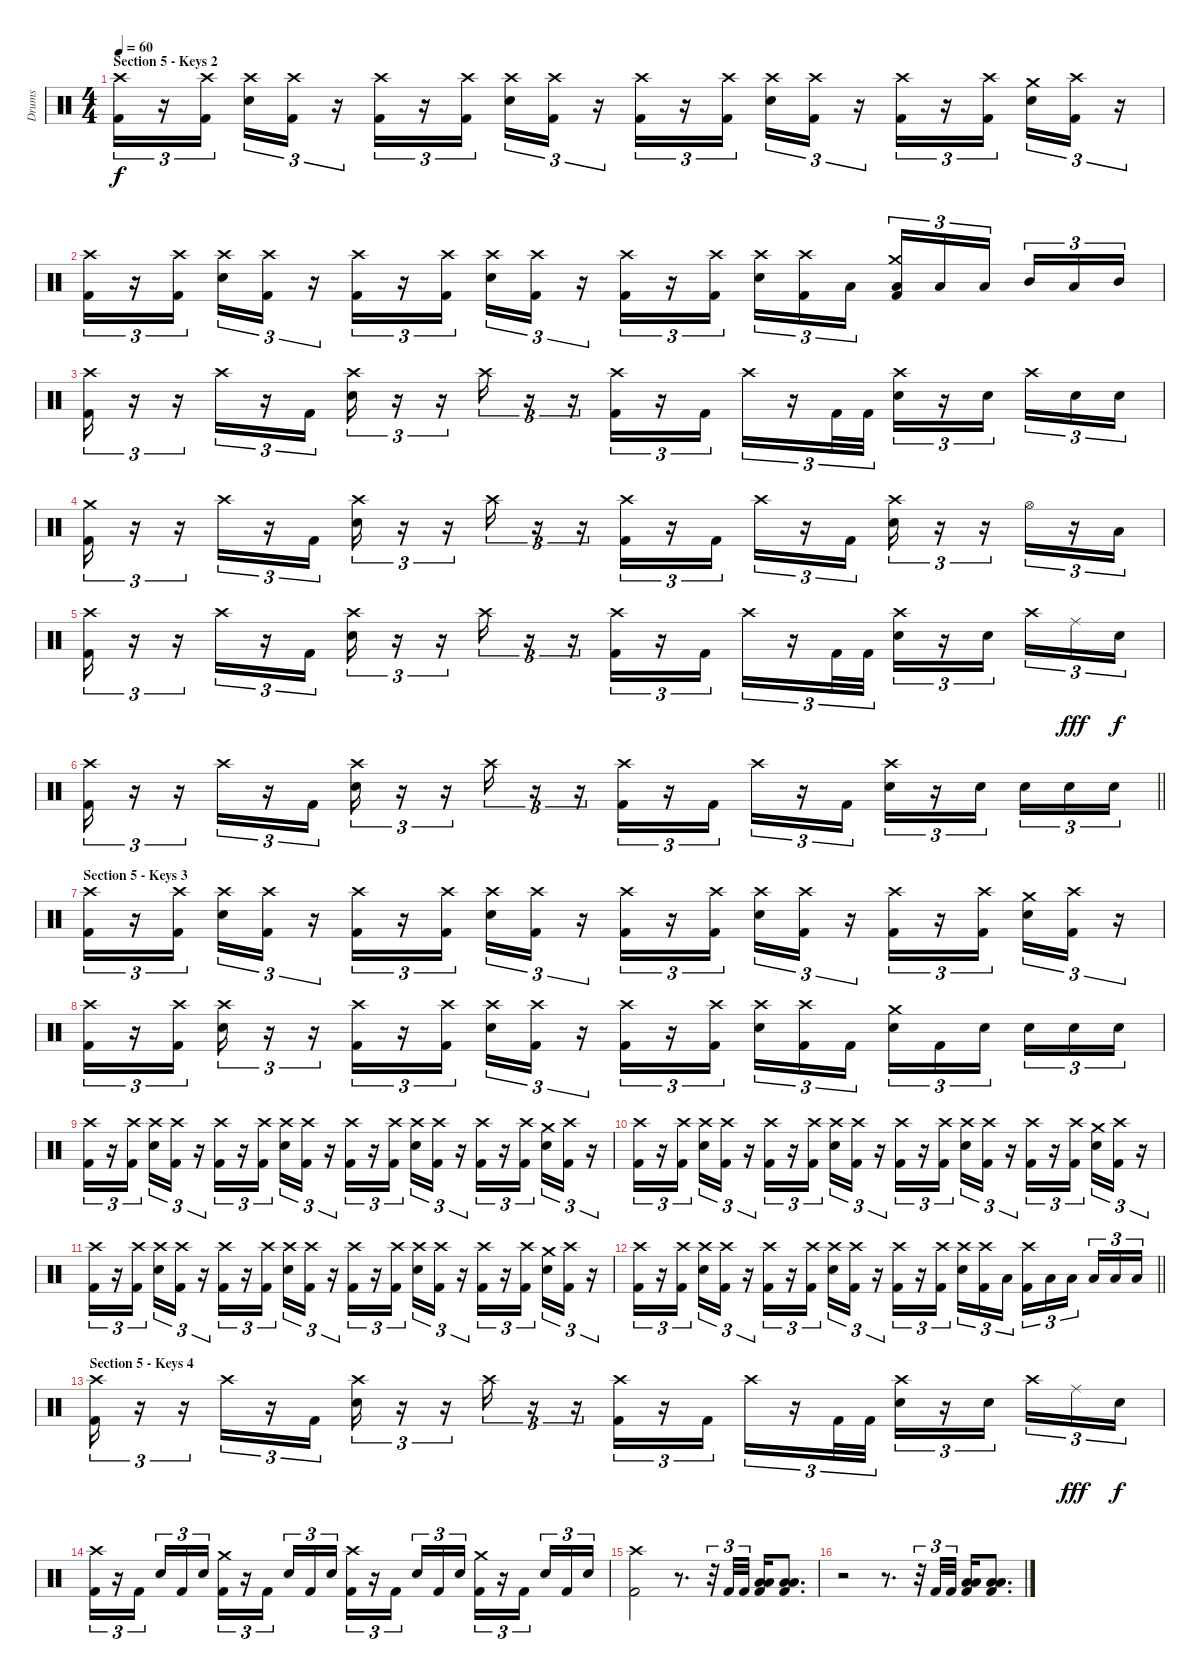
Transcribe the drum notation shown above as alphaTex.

\track ("Drums" "Drums") {instrument percussion}
\staff {score}
\articulation defaults
\ts (4 4)
\section ("" "Section 5 - Keys 2")
\tempo 60
\clef neutral
\ks c
("Crash high (hit)" "Kick (hit) 2").16{tu (3 2) dy f} r.16{tu (3 2)} ("Crash high (hit)" "Kick (hit) 2").16{tu (3 2) beam splitsecondary} ("Crash high (hit)" "Electric Snare (hit)").16{tu (3 2)} ("Crash high (hit)" "Kick (hit) 2").16{tu (3 2)} r.16{tu (3 2)} ("Crash high (hit)" "Kick (hit) 2").16{tu (3 2)} r.16{tu (3 2)} ("Crash high (hit)" "Kick (hit) 2").16{tu (3 2) beam splitsecondary} ("Crash high (hit)" "Electric Snare (hit)").16{tu (3 2)} ("Crash high (hit)" "Kick (hit) 2").16{tu (3 2)} r.16{tu (3 2)} ("Crash high (hit)" "Kick (hit) 2").16{tu (3 2)} r.16{tu (3 2)} ("Crash high (hit)" "Kick (hit) 2").16{tu (3 2) beam splitsecondary} ("Crash high (hit)" "Electric Snare (hit)").16{tu (3 2)} ("Crash high (hit)" "Kick (hit) 2").16{tu (3 2)} r.16{tu (3 2)} ("Crash high (hit)" "Kick (hit) 2").16{tu (3 2)} r.16{tu (3 2)} ("Crash high (hit)" "Kick (hit) 2").16{tu (3 2) beam splitsecondary} ("Crash medium (hit)" "Electric Snare (hit)").16{tu (3 2)} ("Crash high (hit)" "Kick (hit) 2").16{tu (3 2)} r.16{tu (3 2)} |
("Crash high (hit)" "Kick (hit) 2").16{tu (3 2)} r.16{tu (3 2)} ("Crash high (hit)" "Kick (hit) 2").16{tu (3 2) beam splitsecondary} ("Crash high (hit)" "Electric Snare (hit)").16{tu (3 2)} ("Crash high (hit)" "Kick (hit) 2").16{tu (3 2)} r.16{tu (3 2)} ("Crash high (hit)" "Kick (hit) 2").16{tu (3 2)} r.16{tu (3 2)} ("Crash high (hit)" "Kick (hit) 2").16{tu (3 2) beam splitsecondary} ("Crash high (hit)" "Electric Snare (hit)").16{tu (3 2)} ("Crash high (hit)" "Kick (hit) 2").16{tu (3 2)} r.16{tu (3 2)} ("Crash high (hit)" "Kick (hit) 2").16{tu (3 2)} r.16{tu (3 2)} ("Crash high (hit)" "Kick (hit) 2").16{tu (3 2) beam splitsecondary} ("Crash high (hit)" "Electric Snare (hit)").16{tu (3 2)} ("Crash high (hit)" "Kick (hit) 2").16{tu (3 2)} "Low Tom (hit)".16{tu (3 2)} ("Crash medium (hit)" "Low Floor Tom (hit)" "Kick (hit) 2").16{tu (3 2)} "Low Tom (hit)".16{tu (3 2)} "Low Floor Tom (hit)".16{tu (3 2) beam splitsecondary} "Mid Tom (hit)".16{tu (3 2)} "Low Floor Tom (hit)".16{tu (3 2)} "Mid Tom (hit)".16{tu (3 2)} |
("Crash high (hit)" "Kick (hit) 2").16{tu (3 2)} r.16{tu (3 2)} r.16{tu (3 2)} "Crash high (hit)".16{tu (3 2)} r.16{tu (3 2)} "Kick (hit) 2".16{tu (3 2)} ("Crash high (hit)" "Electric Snare (hit)").16{tu (3 2)} r.16{tu (3 2)} r.16{tu (3 2)} "Crash high (hit)".16{tu (3 2)} r.16{tu (3 2)} r.16{tu (3 2)} ("Crash high (hit)" "Kick (hit) 2").16{tu (3 2)} r.16{tu (3 2)} "Kick (hit) 2".16{tu (3 2)} "Crash high (hit)".16{tu (3 2)} r.16{tu (3 2)} "Kick (hit) 2".32{tu (3 2)} "Kick (hit) 2".32{tu (3 2)} ("Crash high (hit)" "Electric Snare (hit)").16{tu (3 2)} r.16{tu (3 2)} "Electric Snare (hit)".16{tu (3 2) beam splitsecondary} "Crash high (hit)".16{tu (3 2)} "Electric Snare (hit)".16{tu (3 2)} "Electric Snare (hit)".16{tu (3 2)} |
("Crash medium (hit)" "Kick (hit) 2").16{tu (3 2)} r.16{tu (3 2)} r.16{tu (3 2)} "Crash high (hit)".16{tu (3 2)} r.16{tu (3 2)} "Kick (hit) 2".16{tu (3 2)} ("Crash high (hit)" "Electric Snare (hit)").16{tu (3 2)} r.16{tu (3 2)} r.16{tu (3 2)} "Crash high (hit)".16{tu (3 2)} r.16{tu (3 2)} r.16{tu (3 2)} ("Crash high (hit)" "Kick (hit) 2").16{tu (3 2)} r.16{tu (3 2)} "Kick (hit) 2".16{tu (3 2)} "Crash high (hit)".16{tu (3 2)} r.16{tu (3 2)} "Kick (hit) 2".16{tu (3 2)} ("Crash high (hit)" "Electric Snare (hit)").16{tu (3 2)} r.16{tu (3 2)} r.16{tu (3 2)} "Hi-Hat (open)".16{tu (3 2)} r.16{tu (3 2)} "Low Floor Tom (hit)".16{tu (3 2)} |
("Crash high (hit)" "Kick (hit) 2").16{tu (3 2)} r.16{tu (3 2)} r.16{tu (3 2)} "Crash high (hit)".16{tu (3 2)} r.16{tu (3 2)} "Kick (hit) 2".16{tu (3 2)} ("Crash high (hit)" "Electric Snare (hit)").16{tu (3 2)} r.16{tu (3 2)} r.16{tu (3 2)} "Crash high (hit)".16{tu (3 2)} r.16{tu (3 2)} r.16{tu (3 2)} ("Crash high (hit)" "Kick (hit) 2").16{tu (3 2)} r.16{tu (3 2)} "Kick (hit) 2".16{tu (3 2)} "Crash high (hit)".16{tu (3 2)} r.16{tu (3 2)} "Kick (hit) 2".32{tu (3 2)} "Kick (hit) 2".32{tu (3 2)} ("Crash high (hit)" "Electric Snare (hit)").16{tu (3 2)} r.16{tu (3 2)} "Electric Snare (hit)".16{tu (3 2) beam splitsecondary} "Crash high (hit)".16{tu (3 2)} "Ride (middle)".16{tu (3 2) dy fff} "Electric Snare (hit)".16{tu (3 2) dy f} |
\barLineRight lightlight
("Crash high (hit)" "Kick (hit) 2").16{tu (3 2)} r.16{tu (3 2)} r.16{tu (3 2)} "Crash high (hit)".16{tu (3 2)} r.16{tu (3 2)} "Kick (hit) 2".16{tu (3 2)} ("Crash high (hit)" "Electric Snare (hit)").16{tu (3 2)} r.16{tu (3 2)} r.16{tu (3 2)} "Crash high (hit)".16{tu (3 2)} r.16{tu (3 2)} r.16{tu (3 2)} ("Crash high (hit)" "Kick (hit) 2").16{tu (3 2)} r.16{tu (3 2)} "Kick (hit) 2".16{tu (3 2)} "Crash high (hit)".16{tu (3 2)} r.16{tu (3 2)} "Kick (hit) 2".16{tu (3 2)} ("Crash high (hit)" "Electric Snare (hit)").16{tu (3 2)} r.16{tu (3 2)} "Electric Snare (hit)".16{tu (3 2) beam splitsecondary} "Electric Snare (hit)".16{tu (3 2)} "Electric Snare (hit)".16{tu (3 2)} "Electric Snare (hit)".16{tu (3 2)} |
\section ("" "Section 5 - Keys 3")
("Crash high (hit)" "Kick (hit) 2").16{tu (3 2)} r.16{tu (3 2)} ("Crash high (hit)" "Kick (hit) 2").16{tu (3 2) beam splitsecondary} ("Crash high (hit)" "Electric Snare (hit)").16{tu (3 2)} ("Crash high (hit)" "Kick (hit) 2").16{tu (3 2)} r.16{tu (3 2)} ("Crash high (hit)" "Kick (hit) 2").16{tu (3 2)} r.16{tu (3 2)} ("Crash high (hit)" "Kick (hit) 2").16{tu (3 2) beam splitsecondary} ("Crash high (hit)" "Electric Snare (hit)").16{tu (3 2)} ("Crash high (hit)" "Kick (hit) 2").16{tu (3 2)} r.16{tu (3 2)} ("Crash high (hit)" "Kick (hit) 2").16{tu (3 2)} r.16{tu (3 2)} ("Crash high (hit)" "Kick (hit) 2").16{tu (3 2) beam splitsecondary} ("Crash high (hit)" "Electric Snare (hit)").16{tu (3 2)} ("Crash high (hit)" "Kick (hit) 2").16{tu (3 2)} r.16{tu (3 2)} ("Crash high (hit)" "Kick (hit) 2").16{tu (3 2)} r.16{tu (3 2)} ("Crash high (hit)" "Kick (hit) 2").16{tu (3 2) beam splitsecondary} ("Crash medium (hit)" "Electric Snare (hit)").16{tu (3 2)} ("Crash high (hit)" "Kick (hit) 2").16{tu (3 2)} r.16{tu (3 2)} |
("Crash high (hit)" "Kick (hit) 2").16{tu (3 2)} r.16{tu (3 2)} ("Crash high (hit)" "Kick (hit) 2").16{tu (3 2)} ("Crash high (hit)" "Electric Snare (hit)").16{tu (3 2)} r.16{tu (3 2)} r.16{tu (3 2)} ("Crash high (hit)" "Kick (hit) 2").16{tu (3 2)} r.16{tu (3 2)} ("Crash high (hit)" "Kick (hit) 2").16{tu (3 2) beam splitsecondary} ("Crash high (hit)" "Electric Snare (hit)").16{tu (3 2)} ("Crash high (hit)" "Kick (hit) 2").16{tu (3 2)} r.16{tu (3 2)} ("Crash high (hit)" "Kick (hit) 2").16{tu (3 2)} r.16{tu (3 2)} ("Crash high (hit)" "Kick (hit) 2").16{tu (3 2) beam splitsecondary} ("Crash high (hit)" "Electric Snare (hit)").16{tu (3 2)} ("Crash high (hit)" "Kick (hit) 2").16{tu (3 2)} "Kick (hit) 2".16{tu (3 2)} ("Crash medium (hit)" "Electric Snare (hit)").16{tu (3 2)} "Kick (hit) 2".16{tu (3 2)} "Electric Snare (hit)".16{tu (3 2) beam splitsecondary} "Electric Snare (hit)".16{tu (3 2)} "Electric Snare (hit)".16{tu (3 2)} "Electric Snare (hit)".16{tu (3 2)} |
("Crash high (hit)" "Kick (hit) 2").16{tu (3 2)} r.16{tu (3 2)} ("Crash high (hit)" "Kick (hit) 2").16{tu (3 2) beam splitsecondary} ("Crash high (hit)" "Electric Snare (hit)").16{tu (3 2)} ("Crash high (hit)" "Kick (hit) 2").16{tu (3 2)} r.16{tu (3 2)} ("Crash high (hit)" "Kick (hit) 2").16{tu (3 2)} r.16{tu (3 2)} ("Crash high (hit)" "Kick (hit) 2").16{tu (3 2) beam splitsecondary} ("Crash high (hit)" "Electric Snare (hit)").16{tu (3 2)} ("Crash high (hit)" "Kick (hit) 2").16{tu (3 2)} r.16{tu (3 2)} ("Crash high (hit)" "Kick (hit) 2").16{tu (3 2)} r.16{tu (3 2)} ("Crash high (hit)" "Kick (hit) 2").16{tu (3 2) beam splitsecondary} ("Crash high (hit)" "Electric Snare (hit)").16{tu (3 2)} ("Crash high (hit)" "Kick (hit) 2").16{tu (3 2)} r.16{tu (3 2)} ("Crash high (hit)" "Kick (hit) 2").16{tu (3 2)} r.16{tu (3 2)} ("Crash high (hit)" "Kick (hit) 2").16{tu (3 2) beam splitsecondary} ("Crash medium (hit)" "Electric Snare (hit)").16{tu (3 2)} ("Crash high (hit)" "Kick (hit) 2").16{tu (3 2)} r.16{tu (3 2)} |
("Crash high (hit)" "Kick (hit) 2").16{tu (3 2)} r.16{tu (3 2)} ("Crash high (hit)" "Kick (hit) 2").16{tu (3 2) beam splitsecondary} ("Crash high (hit)" "Electric Snare (hit)").16{tu (3 2)} ("Crash high (hit)" "Kick (hit) 2").16{tu (3 2)} r.16{tu (3 2)} ("Crash high (hit)" "Kick (hit) 2").16{tu (3 2)} r.16{tu (3 2)} ("Crash high (hit)" "Kick (hit) 2").16{tu (3 2) beam splitsecondary} ("Crash high (hit)" "Electric Snare (hit)").16{tu (3 2)} ("Crash high (hit)" "Kick (hit) 2").16{tu (3 2)} r.16{tu (3 2)} ("Crash high (hit)" "Kick (hit) 2").16{tu (3 2)} r.16{tu (3 2)} ("Crash high (hit)" "Kick (hit) 2").16{tu (3 2) beam splitsecondary} ("Crash high (hit)" "Electric Snare (hit)").16{tu (3 2)} ("Crash high (hit)" "Kick (hit) 2").16{tu (3 2)} r.16{tu (3 2)} ("Crash high (hit)" "Kick (hit) 2").16{tu (3 2)} r.16{tu (3 2)} ("Crash high (hit)" "Kick (hit) 2").16{tu (3 2) beam splitsecondary} ("Crash medium (hit)" "Electric Snare (hit)").16{tu (3 2)} ("Crash high (hit)" "Kick (hit) 2").16{tu (3 2)} r.16{tu (3 2)} |
("Crash high (hit)" "Kick (hit) 2").16{tu (3 2)} r.16{tu (3 2)} ("Crash high (hit)" "Kick (hit) 2").16{tu (3 2) beam splitsecondary} ("Crash high (hit)" "Electric Snare (hit)").16{tu (3 2)} ("Crash high (hit)" "Kick (hit) 2").16{tu (3 2)} r.16{tu (3 2)} ("Crash high (hit)" "Kick (hit) 2").16{tu (3 2)} r.16{tu (3 2)} ("Crash high (hit)" "Kick (hit) 2").16{tu (3 2) beam splitsecondary} ("Crash high (hit)" "Electric Snare (hit)").16{tu (3 2)} ("Crash high (hit)" "Kick (hit) 2").16{tu (3 2)} r.16{tu (3 2)} ("Crash high (hit)" "Kick (hit) 2").16{tu (3 2)} r.16{tu (3 2)} ("Crash high (hit)" "Kick (hit) 2").16{tu (3 2) beam splitsecondary} ("Crash high (hit)" "Electric Snare (hit)").16{tu (3 2)} ("Crash high (hit)" "Kick (hit) 2").16{tu (3 2)} r.16{tu (3 2)} ("Crash high (hit)" "Kick (hit) 2").16{tu (3 2)} r.16{tu (3 2)} ("Crash high (hit)" "Kick (hit) 2").16{tu (3 2) beam splitsecondary} ("Crash medium (hit)" "Electric Snare (hit)").16{tu (3 2)} ("Crash high (hit)" "Kick (hit) 2").16{tu (3 2)} r.16{tu (3 2)} |
\barLineRight lightlight
("Crash high (hit)" "Kick (hit) 2").16{tu (3 2)} r.16{tu (3 2)} ("Crash high (hit)" "Kick (hit) 2").16{tu (3 2) beam splitsecondary} ("Crash high (hit)" "Electric Snare (hit)").16{tu (3 2)} ("Crash high (hit)" "Kick (hit) 2").16{tu (3 2)} r.16{tu (3 2)} ("Crash high (hit)" "Kick (hit) 2").16{tu (3 2)} r.16{tu (3 2)} ("Crash high (hit)" "Kick (hit) 2").16{tu (3 2) beam splitsecondary} ("Crash high (hit)" "Electric Snare (hit)").16{tu (3 2)} ("Crash high (hit)" "Kick (hit) 2").16{tu (3 2)} r.16{tu (3 2)} ("Crash high (hit)" "Kick (hit) 2").16{tu (3 2)} r.16{tu (3 2)} ("Crash high (hit)" "Kick (hit) 2").16{tu (3 2) beam splitsecondary} ("Crash high (hit)" "Electric Snare (hit)").16{tu (3 2)} ("Crash high (hit)" "Kick (hit) 2").16{tu (3 2)} "Low Tom (hit)".16{tu (3 2)} ("Crash high (hit)" "Kick (hit) 2").16{tu (3 2)} "Low Tom (hit)".16{tu (3 2)} "Low Floor Tom (hit)".16{tu (3 2) beam splitsecondary} "Low Tom (hit)".16{tu (3 2)} "Low Tom (hit)".16{tu (3 2)} "Low Tom (hit)".16{tu (3 2)} |
\section ("" "Section 5 - Keys 4")
("Crash high (hit)" "Kick (hit) 2").16{tu (3 2)} r.16{tu (3 2)} r.16{tu (3 2)} "Crash high (hit)".16{tu (3 2)} r.16{tu (3 2)} "Kick (hit) 2".16{tu (3 2)} ("Crash high (hit)" "Electric Snare (hit)").16{tu (3 2)} r.16{tu (3 2)} r.16{tu (3 2)} "Crash high (hit)".16{tu (3 2)} r.16{tu (3 2)} r.16{tu (3 2)} ("Crash high (hit)" "Kick (hit) 2").16{tu (3 2)} r.16{tu (3 2)} "Kick (hit) 2".16{tu (3 2)} "Crash high (hit)".16{tu (3 2)} r.16{tu (3 2)} "Kick (hit) 2".32{tu (3 2)} "Kick (hit) 2".32{tu (3 2)} ("Crash high (hit)" "Electric Snare (hit)").16{tu (3 2)} r.16{tu (3 2)} "Electric Snare (hit)".16{tu (3 2) beam splitsecondary} "Crash high (hit)".16{tu (3 2)} "Ride (middle)".16{tu (3 2) dy fff} "Electric Snare (hit)".16{tu (3 2) dy f} |
("Crash high (hit)" "Kick (hit) 2").16{tu (3 2)} r.16{tu (3 2)} "Kick (hit) 2".16{tu (3 2) beam splitsecondary} "Electric Snare (hit)".16{tu (3 2)} "Kick (hit) 2".16{tu (3 2)} "Electric Snare (hit)".16{tu (3 2)} ("Crash medium (hit)" "Kick (hit) 2").16{tu (3 2)} r.16{tu (3 2)} "Kick (hit) 2".16{tu (3 2) beam splitsecondary} "Electric Snare (hit)".16{tu (3 2)} "Kick (hit) 2".16{tu (3 2)} "Electric Snare (hit)".16{tu (3 2)} ("Crash high (hit)" "Kick (hit) 2").16{tu (3 2)} r.16{tu (3 2)} "Kick (hit) 2".16{tu (3 2) beam splitsecondary} "Electric Snare (hit)".16{tu (3 2)} "Kick (hit) 2".16{tu (3 2)} "Electric Snare (hit)".16{tu (3 2)} ("Crash medium (hit)" "Kick (hit) 2").16{tu (3 2)} r.16{tu (3 2)} "Kick (hit) 2".16{tu (3 2) beam splitsecondary} "Electric Snare (hit)".16{tu (3 2)} "Kick (hit) 2".16{tu (3 2)} "Electric Snare (hit)".16{tu (3 2)} |
("Crash high (hit)" "Kick (hit) 2").2 r.8{d} r.32{tu (3 2)} "Kick (hit) 2".32{tu (3 2)} "Kick (hit) 2".32{tu (3 2)} ("Low Tom (hit)" "Low Floor Tom (hit)" "Kick (hit) 2").16 ("Low Tom (hit)" "Low Floor Tom (hit)" "Kick (hit) 2").8{d} |
r.2 r.8{d} r.32{tu (3 2)} "Kick (hit) 2".32{tu (3 2)} "Kick (hit) 2".32{tu (3 2)} ("Low Tom (hit)" "Low Floor Tom (hit)" "Kick (hit) 2").16 ("Low Tom (hit)" "Low Floor Tom (hit)" "Kick (hit) 2").8{d}
